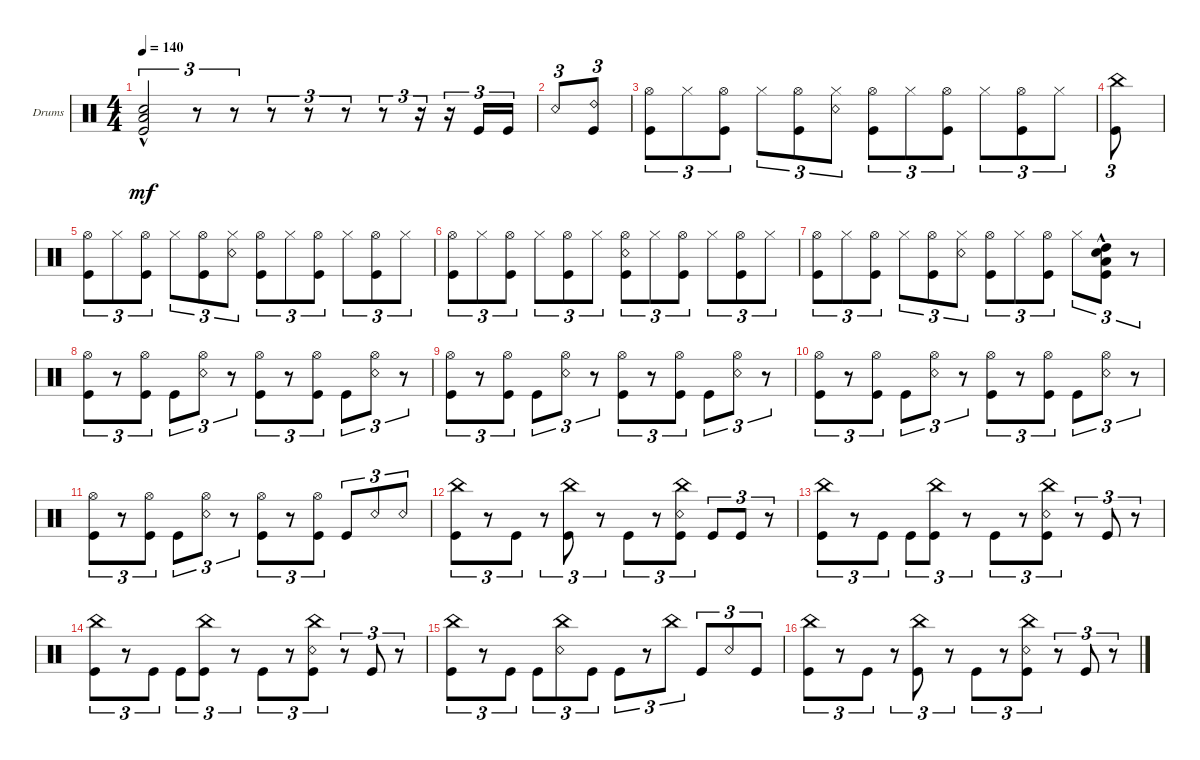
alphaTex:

\defaultSystemsLayout 4
\bracketExtendMode groupsimilarinstruments
\firstSystemTrackNameOrientation horizontal
\otherSystemsTrackNameOrientation horizontal
\track ("Drumkit" "Drums") {instrument percussion}
\staff {score}
\articulation defaults
\ts (4 4)
\tempo 140
\clef neutral
\ks c
("Low Tom (hit)" "Snare (hit) 2" "Kick (hit)"{hac}).2{tu (3 2) dy mf} r.8{tu (3 2)} r.8{tu (3 2)} r.8{tu (3 2)} r.8{tu (3 2)} r.8{tu (3 2)} r.8{tu (3 2)} r.16{tu (3 2)} r.16{tu (3 2)} "Kick (hit)".16{tu (3 2)} "Kick (hit)".16{tu (3 2)} |
"Snare (rim shot)".8{tu (3 2)} ("Ride (bell) 2" "Kick (hit)").8{tu (3 2)} |
("Kick (hit)" "Hi-Hat (open)").8{tu (3 2)} "Hi-Hat (closed)".8{tu (3 2)} ("Kick (hit)" "Hi-Hat (open)").8{tu (3 2)} "Hi-Hat (closed)".8{tu (3 2)} ("Kick (hit)" "Hi-Hat (open)").8{tu (3 2)} ("Hi-Hat (closed)" "Snare (rim shot)").8{tu (3 2)} ("Kick (hit)" "Hi-Hat (open)").8{tu (3 2)} "Hi-Hat (closed)".8{tu (3 2)} ("Kick (hit)" "Hi-Hat (open)").8{tu (3 2)} "Hi-Hat (closed)".8{tu (3 2)} ("Kick (hit)" "Hi-Hat (open)").8{tu (3 2)} "Hi-Hat (closed)".8{tu (3 2)} |
("Kick (hit)" "China (hit)").8{tu (3 2)} |
("Kick (hit)" "Hi-Hat (open)").8{tu (3 2)} "Hi-Hat (closed)".8{tu (3 2)} ("Kick (hit)" "Hi-Hat (open)").8{tu (3 2)} "Hi-Hat (closed)".8{tu (3 2)} ("Kick (hit)" "Hi-Hat (open)").8{tu (3 2)} ("Hi-Hat (closed)" "Snare (rim shot)").8{tu (3 2)} ("Kick (hit)" "Hi-Hat (open)").8{tu (3 2)} "Hi-Hat (closed)".8{tu (3 2)} ("Kick (hit)" "Hi-Hat (open)").8{tu (3 2)} "Hi-Hat (closed)".8{tu (3 2)} ("Kick (hit)" "Hi-Hat (open)").8{tu (3 2)} "Hi-Hat (closed)".8{tu (3 2)} |
("Kick (hit)" "Hi-Hat (open)").8{tu (3 2)} "Hi-Hat (closed)".8{tu (3 2)} ("Kick (hit)" "Hi-Hat (open)").8{tu (3 2)} "Hi-Hat (closed)".8{tu (3 2)} ("Kick (hit)" "Hi-Hat (open)").8{tu (3 2)} "Hi-Hat (closed)".8{tu (3 2)} ("Kick (hit)" "Hi-Hat (open)" "Snare (rim shot)").8{tu (3 2)} "Hi-Hat (closed)".8{tu (3 2)} ("Kick (hit)" "Hi-Hat (open)").8{tu (3 2)} "Hi-Hat (closed)".8{tu (3 2)} ("Kick (hit)" "Hi-Hat (open)").8{tu (3 2)} "Hi-Hat (closed)".8{tu (3 2)} |
("Kick (hit)" "Hi-Hat (open)").8{tu (3 2)} "Hi-Hat (closed)".8{tu (3 2)} ("Kick (hit)" "Hi-Hat (open)").8{tu (3 2)} "Hi-Hat (closed)".8{tu (3 2)} ("Kick (hit)" "Hi-Hat (open)").8{tu (3 2)} ("Hi-Hat (closed)" "Snare (rim shot)").8{tu (3 2)} ("Kick (hit)" "Hi-Hat (open)").8{tu (3 2)} "Hi-Hat (closed)".8{tu (3 2)} ("Kick (hit)" "Hi-Hat (open)").8{tu (3 2)} "Hi-Hat (closed)".8{tu (3 2)} ("Kick (hit)" "Low Tom (hit)"{hac} "High Tom (hit)" "Snare (hit) 2").8{tu (3 2)} r.8{tu (3 2)} |
("Kick (hit)" "Hi-Hat (open)").8{tu (3 2)} r.8{tu (3 2)} ("Hi-Hat (open)" "Kick (hit)").8{tu (3 2)} "Kick (hit)".8{tu (3 2)} ("Hi-Hat (open)" "Snare (rim shot)").8{tu (3 2)} r.8{tu (3 2)} ("Kick (hit)" "Hi-Hat (open)").8{tu (3 2)} r.8{tu (3 2)} ("Hi-Hat (open)" "Kick (hit)").8{tu (3 2)} "Kick (hit)".8{tu (3 2)} ("Hi-Hat (open)" "Snare (rim shot)").8{tu (3 2)} r.8{tu (3 2)} |
("Kick (hit)" "Hi-Hat (open)").8{tu (3 2)} r.8{tu (3 2)} ("Hi-Hat (open)" "Kick (hit)").8{tu (3 2)} "Kick (hit)".8{tu (3 2)} ("Hi-Hat (open)" "Snare (rim shot)").8{tu (3 2)} r.8{tu (3 2)} ("Kick (hit)" "Hi-Hat (open)").8{tu (3 2)} r.8{tu (3 2)} ("Hi-Hat (open)" "Kick (hit)").8{tu (3 2)} "Kick (hit)".8{tu (3 2)} ("Hi-Hat (open)" "Snare (rim shot)").8{tu (3 2)} r.8{tu (3 2)} |
("Kick (hit)" "Hi-Hat (open)").8{tu (3 2)} r.8{tu (3 2)} ("Hi-Hat (open)" "Kick (hit)").8{tu (3 2)} "Kick (hit)".8{tu (3 2)} ("Hi-Hat (open)" "Snare (rim shot)").8{tu (3 2)} r.8{tu (3 2)} ("Kick (hit)" "Hi-Hat (open)").8{tu (3 2)} r.8{tu (3 2)} ("Hi-Hat (open)" "Kick (hit)").8{tu (3 2)} "Kick (hit)".8{tu (3 2)} ("Hi-Hat (open)" "Snare (rim shot)").8{tu (3 2)} r.8{tu (3 2)} |
("Kick (hit)" "Hi-Hat (open)").8{tu (3 2)} r.8{tu (3 2)} ("Hi-Hat (open)" "Kick (hit)").8{tu (3 2)} "Kick (hit)".8{tu (3 2)} ("Hi-Hat (open)" "Snare (rim shot)").8{tu (3 2)} r.8{tu (3 2)} ("Kick (hit)" "Hi-Hat (open)").8{tu (3 2)} r.8{tu (3 2)} ("Hi-Hat (open)" "Kick (hit)").8{tu (3 2)} "Kick (hit)".8{tu (3 2)} "Snare (rim shot)".8{tu (3 2)} "Snare (rim shot)".8{tu (3 2)} |
("China (hit)" "Kick (hit)").8{tu (3 2)} r.8{tu (3 2)} "Kick (hit)".8{tu (3 2)} r.8{tu (3 2)} ("Kick (hit)" "China (hit)").8{tu (3 2)} r.8{tu (3 2)} "Kick (hit)".8{tu (3 2)} r.8{tu (3 2)} ("Kick (hit)" "Snare (rim shot)" "China (hit)").8{tu (3 2)} "Kick (hit)".8{tu (3 2)} "Kick (hit)".8{tu (3 2)} r.8{tu (3 2)} |
("China (hit)" "Kick (hit)").8{tu (3 2)} r.8{tu (3 2)} "Kick (hit)".8{tu (3 2)} "Kick (hit)".8{tu (3 2)} ("Kick (hit)" "China (hit)").8{tu (3 2)} r.8{tu (3 2)} "Kick (hit)".8{tu (3 2)} r.8{tu (3 2)} ("Kick (hit)" "Snare (rim shot)" "China (hit)").8{tu (3 2)} r.8{tu (3 2)} "Kick (hit)".8{tu (3 2)} r.8{tu (3 2)} |
("China (hit)" "Kick (hit)").8{tu (3 2)} r.8{tu (3 2)} "Kick (hit)".8{tu (3 2)} "Kick (hit)".8{tu (3 2)} ("Kick (hit)" "China (hit)").8{tu (3 2)} r.8{tu (3 2)} "Kick (hit)".8{tu (3 2)} r.8{tu (3 2)} ("Kick (hit)" "Snare (rim shot)" "China (hit)").8{tu (3 2)} r.8{tu (3 2)} "Kick (hit)".8{tu (3 2)} r.8{tu (3 2)} |
("Kick (hit)" "China (hit)").8{tu (3 2)} r.8{tu (3 2)} "Kick (hit)".8{tu (3 2)} "Kick (hit)".8{tu (3 2)} ("Snare (rim shot)" "China (hit)").8{tu (3 2)} "Kick (hit)".8{tu (3 2)} "Kick (hit)".8{tu (3 2)} r.8{tu (3 2)} "China (hit)".8{tu (3 2)} "Kick (hit)".8{tu (3 2)} "Snare (rim shot)".8{tu (3 2)} "Kick (hit)".8{tu (3 2)} |
("China (hit)" "Kick (hit)").8{tu (3 2)} r.8{tu (3 2)} "Kick (hit)".8{tu (3 2)} r.8{tu (3 2)} ("Kick (hit)" "China (hit)").8{tu (3 2)} r.8{tu (3 2)} "Kick (hit)".8{tu (3 2)} r.8{tu (3 2)} ("Kick (hit)" "Snare (rim shot)" "China (hit)").8{tu (3 2)} r.8{tu (3 2)} "Kick (hit)".8{tu (3 2)} r.8{tu (3 2)}
